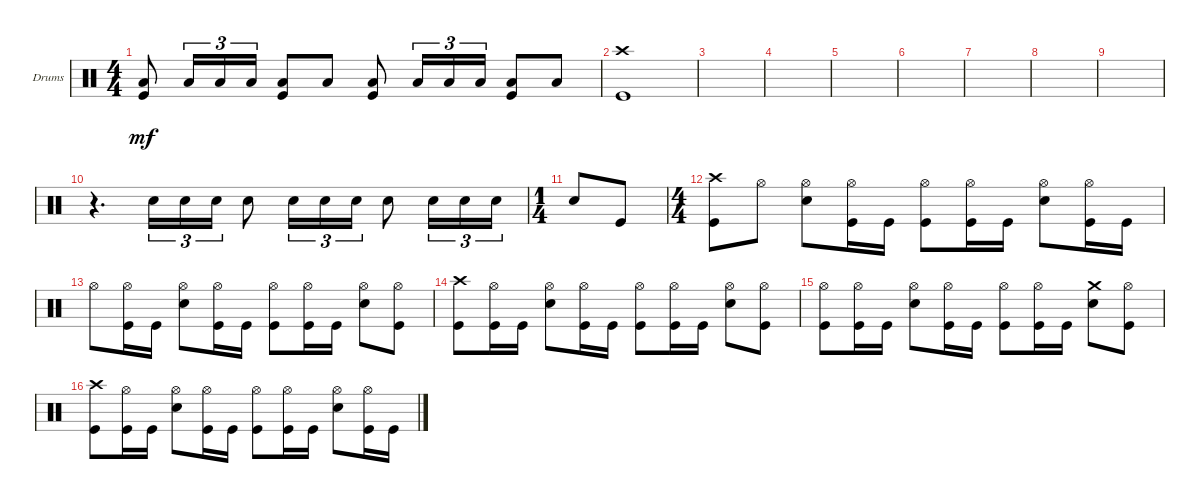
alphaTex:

\defaultSystemsLayout 4
\bracketExtendMode groupsimilarinstruments
\firstSystemTrackNameOrientation horizontal
\otherSystemsTrackNameOrientation horizontal
\track ("Drumkit" "Drums") {instrument percussion}
\staff {score}
\articulation defaults
\ts (4 4)
\tempo (69 hide)
\clef neutral
\ks c
("Kick (hit)" "Low Tom (hit)").8{dy mf} "Low Tom (hit)".16{tu (3 2)} "Low Tom (hit)".16{tu (3 2)} "Low Tom (hit)".16{tu (3 2)} ("Low Tom (hit)" "Kick (hit)").8 "Low Tom (hit)".8 ("Kick (hit)" "Low Tom (hit)").8 "Low Tom (hit)".16{tu (3 2)} "Low Tom (hit)".16{tu (3 2)} "Low Tom (hit)".16{tu (3 2)} ("Low Tom (hit)" "Kick (hit)").8 "Low Tom (hit)".8 |
("Kick (hit)" "Crash high (hit)").1 |
|
|
|
|
|
|
|
r.4{d} "Snare (hit) 2".16{tu (3 2)} "Snare (hit) 2".16{tu (3 2)} "Snare (hit) 2".16{tu (3 2)} "Snare (hit) 2".8 "Snare (hit) 2".16{tu (3 2)} "Snare (hit) 2".16{tu (3 2)} "Snare (hit) 2".16{tu (3 2)} "Snare (hit) 2".8 "Snare (hit) 2".16{tu (3 2)} "Snare (hit) 2".16{tu (3 2)} "Snare (hit) 2".16{tu (3 2)} |
\ts (1 4)
"Snare (hit) 2".8 "Kick (hit)".8 |
\ts (4 4)
("Kick (hit)" "Crash high (hit)").8 "Hi-Hat (open)".8 ("Hi-Hat (open)" "Snare (hit) 2").8 ("Hi-Hat (open)" "Kick (hit)").16 "Kick (hit)".16 ("Kick (hit)" "Hi-Hat (open)").8 ("Kick (hit)" "Hi-Hat (open)").16 "Kick (hit)".16 ("Snare (hit) 2" "Hi-Hat (open)").8 ("Kick (hit)" "Hi-Hat (open)").16 "Kick (hit)".16 |
"Hi-Hat (open)".8 ("Kick (hit)" "Hi-Hat (open)").16 "Kick (hit)".16 ("Hi-Hat (open)" "Snare (hit) 2").8 ("Kick (hit)" "Hi-Hat (open)").16 "Kick (hit)".16 ("Kick (hit)" "Hi-Hat (open)").8 ("Kick (hit)" "Hi-Hat (open)").16 "Kick (hit)".16 ("Snare (hit) 2" "Hi-Hat (open)").8 ("Kick (hit)" "Hi-Hat (open)").8 |
("Kick (hit)" "Crash high (hit)").8 ("Kick (hit)" "Hi-Hat (open)").16 "Kick (hit)".16 ("Hi-Hat (open)" "Snare (hit) 2").8 ("Hi-Hat (open)" "Kick (hit)").16 "Kick (hit)".16 ("Kick (hit)" "Hi-Hat (open)").8 ("Kick (hit)" "Hi-Hat (open)").16 "Kick (hit)".16 ("Snare (hit) 2" "Hi-Hat (open)").8 ("Kick (hit)" "Hi-Hat (open)").8 |
("Hi-Hat (open)" "Kick (hit)").8 ("Kick (hit)" "Hi-Hat (open)").16 "Kick (hit)".16 ("Hi-Hat (open)" "Snare (hit) 2").8 ("Kick (hit)" "Hi-Hat (open)").16 "Kick (hit)".16 ("Kick (hit)" "Hi-Hat (open)").8 ("Kick (hit)" "Hi-Hat (open)").16 "Kick (hit)".16 ("Snare (hit) 2" "Crash medium (hit)").8 ("Kick (hit)" "Hi-Hat (open)").8 |
("Kick (hit)" "Crash high (hit)").8 ("Kick (hit)" "Hi-Hat (open)").16 "Kick (hit)".16 ("Hi-Hat (open)" "Snare (hit) 2").8 ("Hi-Hat (open)" "Kick (hit)").16 "Kick (hit)".16 ("Kick (hit)" "Hi-Hat (open)").8 ("Kick (hit)" "Hi-Hat (open)").16 "Kick (hit)".16 ("Snare (hit) 2" "Hi-Hat (open)").8 ("Kick (hit)" "Hi-Hat (open)").16 "Kick (hit)".16
